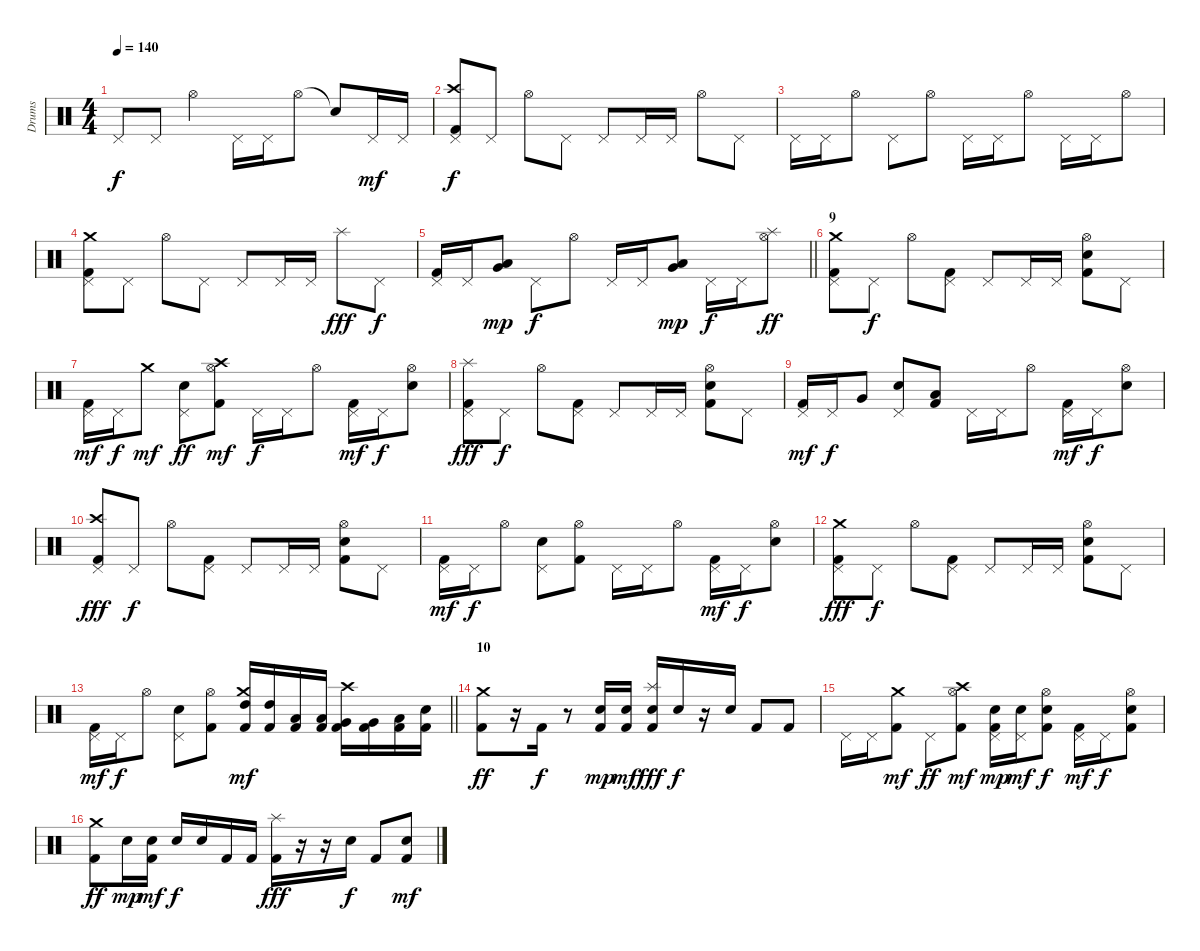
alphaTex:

\track ("Drums" "Drums") {instrument percussion}
\staff {score}
\articulation defaults
\ts (4 4)
\tempo 140
\clef neutral
\ks c "Pedal Hi-Hat (hit)".8{dy f} "Pedal Hi-Hat (hit)".8 "Hi-Hat (open)".4 "Pedal Hi-Hat (hit)".16 "Pedal Hi-Hat (hit)".16 "Hi-Hat (open)".8 "Snare (hit)"{t}.8 "Pedal Hi-Hat (hit)".16{dy mf} "Pedal Hi-Hat (hit)".16
|
("Crash high (hit)" "Pedal Hi-Hat (hit)" "Kick (hit) 2").8{dy f} "Pedal Hi-Hat (hit)".8 "Hi-Hat (open)".8 "Pedal Hi-Hat (hit)".8 "Pedal Hi-Hat (hit)".8 "Pedal Hi-Hat (hit)".16 "Pedal Hi-Hat (hit)".16 "Hi-Hat (open)".8 "Pedal Hi-Hat (hit)".8 |
"Pedal Hi-Hat (hit)".16 "Pedal Hi-Hat (hit)".16 "Hi-Hat (open)".8 "Pedal Hi-Hat (hit)".8 "Hi-Hat (open)".8 "Pedal Hi-Hat (hit)".16 "Pedal Hi-Hat (hit)".16 "Hi-Hat (open)".8 "Pedal Hi-Hat (hit)".16 "Pedal Hi-Hat (hit)".16 "Hi-Hat (open)".8 |
("Crash medium (hit)" "Pedal Hi-Hat (hit)" "Kick (hit) 2").8 "Pedal Hi-Hat (hit)".8 "Hi-Hat (open)".8 "Pedal Hi-Hat (hit)".8 "Pedal Hi-Hat (hit)".8 "Pedal Hi-Hat (hit)".16 "Pedal Hi-Hat (hit)".16 "Splash (hit)".8{dy fff} "Pedal Hi-Hat (hit)".8{dy f} |
\barLineRight lightlight
("Pedal Hi-Hat (hit)" "Kick (hit) 2").16 "Pedal Hi-Hat (hit)".16 ("Very Low Tom (hit)" "Low Tom (hit)").8{dy mp} "Pedal Hi-Hat (hit)".8{dy f} "Hi-Hat (open)".8 "Pedal Hi-Hat (hit)".16 "Pedal Hi-Hat (hit)".16 ("Very Low Tom (hit)" "Low Floor Tom (hit)").8{dy mp} "Pedal Hi-Hat (hit)".16{dy f} "Pedal Hi-Hat (hit)".16 ("Splash (hit)" "Hi-Hat (open)").8{dy ff} |
\section ("" "9")
("Crash medium (hit)" "Pedal Hi-Hat (hit)" "Kick (hit) 2").8 "Pedal Hi-Hat (hit)".8{dy f} "Hi-Hat (open)".8 ("Pedal Hi-Hat (hit)" "Kick (hit) 2").8 "Pedal Hi-Hat (hit)".8 "Pedal Hi-Hat (hit)".16 "Pedal Hi-Hat (hit)".16 ("Hi-Hat (open)" "Electric Snare (hit)" "Kick (hit) 2").8 "Pedal Hi-Hat (hit)".8 |
("Pedal Hi-Hat (hit)" "Kick (hit) 2").16{dy mf} "Pedal Hi-Hat (hit)".16{dy f} "Crash medium (hit)".8{dy mf} ("Pedal Hi-Hat (hit)" "Electric Snare (hit)").8{dy ff} ("Crash high (hit)" "Hi-Hat (open)" "Kick (hit) 2").8{dy mf} "Pedal Hi-Hat (hit)".16{dy f} "Pedal Hi-Hat (hit)".16 "Hi-Hat (open)".8 ("Pedal Hi-Hat (hit)" "Kick (hit) 2").16{dy mf} "Pedal Hi-Hat (hit)".16{dy f} ("Hi-Hat (open)" "Electric Snare (hit)").8 |
("Splash (hit)" "Pedal Hi-Hat (hit)" "Kick (hit) 2").8{dy fff} "Pedal Hi-Hat (hit)".8{dy f} "Hi-Hat (open)".8 ("Pedal Hi-Hat (hit)" "Kick (hit) 2").8 "Pedal Hi-Hat (hit)".8 "Pedal Hi-Hat (hit)".16 "Pedal Hi-Hat (hit)".16 ("Hi-Hat (open)" "Electric Snare (hit)" "Kick (hit) 2").8 "Pedal Hi-Hat (hit)".8 |
("Pedal Hi-Hat (hit)" "Kick (hit) 2").16{dy mf} "Pedal Hi-Hat (hit)".16{dy f} "Very Low Tom (hit)".8 ("Pedal Hi-Hat (hit)" "Electric Snare (hit)").8 ("Low Floor Tom (hit)" "Kick (hit) 2").8 "Pedal Hi-Hat (hit)".16 "Pedal Hi-Hat (hit)".16 "Hi-Hat (open)".8 ("Pedal Hi-Hat (hit)" "Kick (hit) 2").16{dy mf} "Pedal Hi-Hat (hit)".16{dy f} ("Hi-Hat (open)" "Electric Snare (hit)").8 |
("Crash high (hit)" "Pedal Hi-Hat (hit)" "Kick (hit) 2").8{dy fff} "Pedal Hi-Hat (hit)".8{dy f} "Hi-Hat (open)".8 ("Pedal Hi-Hat (hit)" "Kick (hit) 2").8 "Pedal Hi-Hat (hit)".8 "Pedal Hi-Hat (hit)".16 "Pedal Hi-Hat (hit)".16 ("Hi-Hat (open)" "Electric Snare (hit)" "Kick (hit) 2").8 "Pedal Hi-Hat (hit)".8 |
("Pedal Hi-Hat (hit)" "Kick (hit) 2").16{dy mf} "Pedal Hi-Hat (hit)".16{dy f} "Hi-Hat (open)".8 ("Pedal Hi-Hat (hit)" "Electric Snare (hit)").8 ("Hi-Hat (open)" "Kick (hit) 2").8 "Pedal Hi-Hat (hit)".16 "Pedal Hi-Hat (hit)".16 "Hi-Hat (open)".8 ("Pedal Hi-Hat (hit)" "Kick (hit) 2").16{dy mf} "Pedal Hi-Hat (hit)".16{dy f} ("Hi-Hat (open)" "Electric Snare (hit)").8 |
("Crash medium (hit)" "Pedal Hi-Hat (hit)" "Kick (hit) 2").8{dy fff} "Pedal Hi-Hat (hit)".8{dy f} "Hi-Hat (open)".8 ("Pedal Hi-Hat (hit)" "Kick (hit) 2").8 "Pedal Hi-Hat (hit)".8 "Pedal Hi-Hat (hit)".16 "Pedal Hi-Hat (hit)".16 ("Hi-Hat (open)" "Electric Snare (hit)" "Kick (hit) 2").8 "Pedal Hi-Hat (hit)".8 |
\barLineRight lightlight
("Pedal Hi-Hat (hit)" "Kick (hit) 2").16{dy mf} "Pedal Hi-Hat (hit)".16{dy f} "Hi-Hat (open)".8 ("Pedal Hi-Hat (hit)" "Electric Snare (hit)").8 ("Hi-Hat (open)" "Kick (hit) 2").8 ("Crash medium (hit)" "High Tom (hit)" "Kick (hit) 2").16{dy mf} ("High Tom (hit)" "Kick (hit) 2").16 ("Low Tom (hit)" "Kick (hit) 2").16 ("Low Tom (hit)" "Kick (hit) 2").16 ("Crash high (hit)" "Very Low Tom (hit)" "Kick (hit) 2").16 ("Very Low Tom (hit)" "Kick (hit) 2").16 ("Low Floor Tom (hit)" "Kick (hit) 2").16 ("Electric Snare (hit)" "Kick (hit) 2").16 |
\section ("" "10")
("Crash medium (hit)" "Kick (hit) 2").8{dy ff} r.16 "Kick (hit) 2".16{dy f} r.8 ("Electric Snare (hit)" "Kick (hit) 2").16{dy mp} ("Electric Snare (hit)" "Kick (hit) 2").16{dy mf} ("Splash (hit)" "Electric Snare (hit)" "Kick (hit) 2").16{dy fff} "Electric Snare (hit)".16{dy f} r.16 "Electric Snare (hit)".16 "Kick (hit) 2".8 "Kick (hit) 2".8 |
"Pedal Hi-Hat (hit)".16 "Pedal Hi-Hat (hit)".16 ("Crash medium (hit)" "Kick (hit) 2").8{dy mf} "Pedal Hi-Hat (hit)".8{dy ff} ("Crash high (hit)" "Hi-Hat (open)" "Kick (hit) 2").8{dy mf} ("Pedal Hi-Hat (hit)" "Electric Snare (hit)" "Kick (hit) 2").16{dy mp} ("Pedal Hi-Hat (hit)" "Electric Snare (hit)").16{dy mf} ("Hi-Hat (open)" "Electric Snare (hit)" "Kick (hit) 2").8{dy f} ("Pedal Hi-Hat (hit)" "Kick (hit) 2").16{dy mf} "Pedal Hi-Hat (hit)".16{dy f} ("Hi-Hat (open)" "Electric Snare (hit)" "Kick (hit) 2").8 |
("Crash medium (hit)" "Kick (hit) 2").8{dy ff} "Electric Snare (hit)".16{dy mp} ("Electric Snare (hit)" "Kick (hit) 2").16{dy mf} "Electric Snare (hit)".16{dy f} "Electric Snare (hit)".16 "Kick (hit) 2".16 "Kick (hit) 2".16 ("Splash (hit)" "Kick (hit) 2").16{dy fff} r.16 r.16 "Electric Snare (hit)".16{dy f} "Kick (hit) 2".8 ("Electric Snare (hit)" "Kick (hit) 2").8{dy mf}
